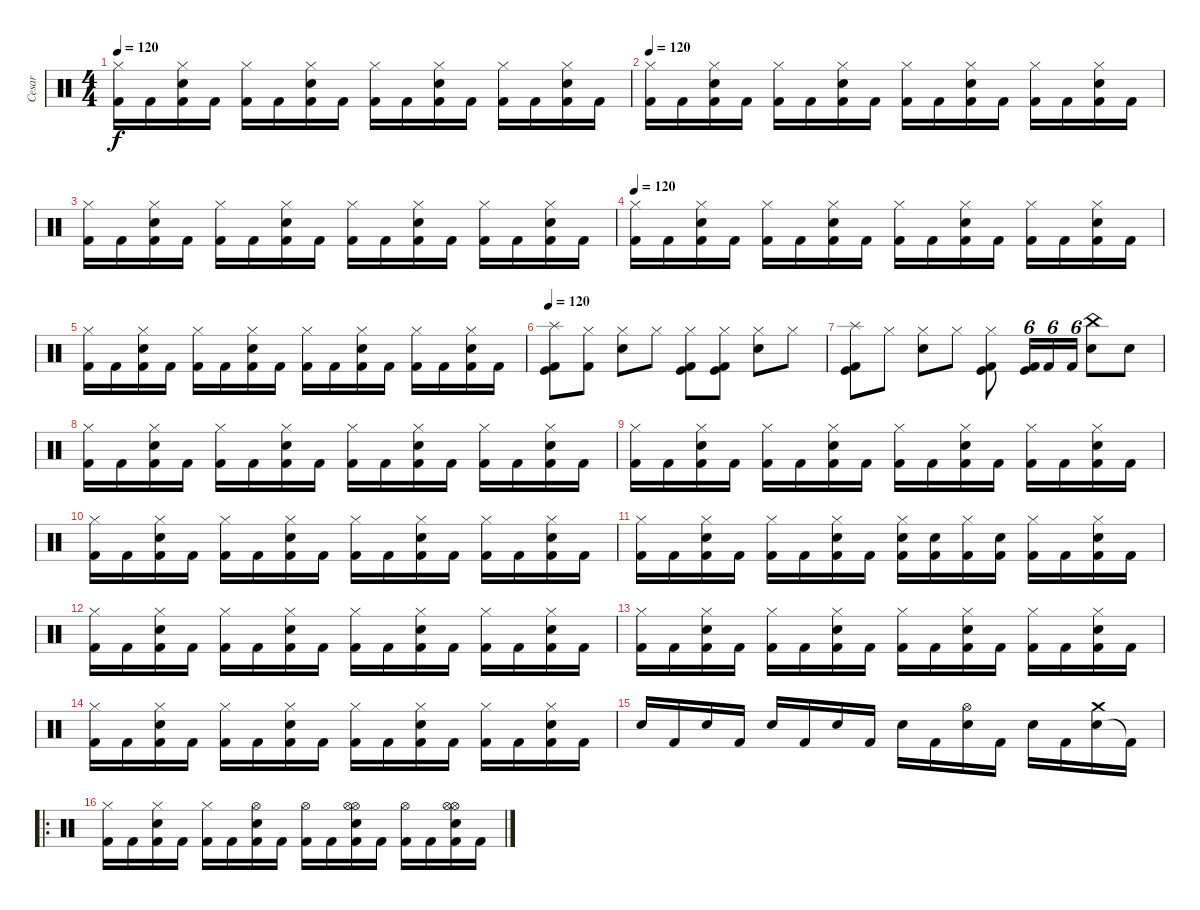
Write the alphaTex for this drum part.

\track ("Cesar" "Cesar") {instrument percussion}
\staff {score}
\articulation defaults
\ts (4 4)
\tempo 120
\clef neutral
\ks c
("Hi-Hat (closed)" "Kick (hit) 2").16{dy f} "Kick (hit) 2".16 ("Electric Snare (hit)" "Kick (hit) 2" "Hi-Hat (closed)").16 "Kick (hit) 2".16 ("Hi-Hat (closed)" "Kick (hit) 2").16 "Kick (hit) 2".16 ("Electric Snare (hit)" "Kick (hit) 2" "Hi-Hat (closed)").16 "Kick (hit) 2".16 ("Hi-Hat (closed)" "Kick (hit) 2").16 "Kick (hit) 2".16 ("Electric Snare (hit)" "Kick (hit) 2" "Hi-Hat (closed)").16 "Kick (hit) 2".16 ("Hi-Hat (closed)" "Kick (hit) 2").16 "Kick (hit) 2".16 ("Electric Snare (hit)" "Hi-Hat (closed)" "Kick (hit) 2").16 "Kick (hit) 2".16 |
\tempo 120
("Hi-Hat (closed)" "Kick (hit) 2").16 "Kick (hit) 2".16 ("Electric Snare (hit)" "Kick (hit) 2" "Hi-Hat (closed)").16 "Kick (hit) 2".16 ("Hi-Hat (closed)" "Kick (hit) 2").16 "Kick (hit) 2".16 ("Electric Snare (hit)" "Kick (hit) 2" "Hi-Hat (closed)").16 "Kick (hit) 2".16 ("Hi-Hat (closed)" "Kick (hit) 2").16 "Kick (hit) 2".16 ("Electric Snare (hit)" "Kick (hit) 2" "Hi-Hat (closed)").16 "Kick (hit) 2".16 ("Hi-Hat (closed)" "Kick (hit) 2").16 "Kick (hit) 2".16 ("Electric Snare (hit)" "Hi-Hat (closed)" "Kick (hit) 2").16 "Kick (hit) 2".16 |
("Hi-Hat (closed)" "Kick (hit) 2").16 "Kick (hit) 2".16 ("Electric Snare (hit)" "Kick (hit) 2" "Hi-Hat (closed)").16 "Kick (hit) 2".16 ("Hi-Hat (closed)" "Kick (hit) 2").16 "Kick (hit) 2".16 ("Electric Snare (hit)" "Kick (hit) 2" "Hi-Hat (closed)").16 "Kick (hit) 2".16 ("Hi-Hat (closed)" "Kick (hit) 2").16 "Kick (hit) 2".16 ("Electric Snare (hit)" "Kick (hit) 2" "Hi-Hat (closed)").16 "Kick (hit) 2".16 ("Hi-Hat (closed)" "Kick (hit) 2").16 "Kick (hit) 2".16 ("Electric Snare (hit)" "Hi-Hat (closed)" "Kick (hit) 2").16 "Kick (hit) 2".16 |
\tempo 120
("Hi-Hat (closed)" "Kick (hit) 2").16 "Kick (hit) 2".16 ("Electric Snare (hit)" "Kick (hit) 2" "Hi-Hat (closed)").16 "Kick (hit) 2".16 ("Hi-Hat (closed)" "Kick (hit) 2").16 "Kick (hit) 2".16 ("Electric Snare (hit)" "Kick (hit) 2" "Hi-Hat (closed)").16 "Kick (hit) 2".16 ("Hi-Hat (closed)" "Kick (hit) 2").16 "Kick (hit) 2".16 ("Electric Snare (hit)" "Kick (hit) 2" "Hi-Hat (closed)").16 "Kick (hit) 2".16 ("Hi-Hat (closed)" "Kick (hit) 2").16 "Kick (hit) 2".16 ("Electric Snare (hit)" "Hi-Hat (closed)" "Kick (hit) 2").16 "Kick (hit) 2".16 |
("Hi-Hat (closed)" "Kick (hit) 2").16 "Kick (hit) 2".16 ("Electric Snare (hit)" "Kick (hit) 2" "Hi-Hat (closed)").16 "Kick (hit) 2".16 ("Hi-Hat (closed)" "Kick (hit) 2").16 "Kick (hit) 2".16 ("Electric Snare (hit)" "Kick (hit) 2" "Hi-Hat (closed)").16 "Kick (hit) 2".16 ("Hi-Hat (closed)" "Kick (hit) 2").16 "Kick (hit) 2".16 ("Electric Snare (hit)" "Kick (hit) 2" "Hi-Hat (closed)").16 "Kick (hit) 2".16 ("Hi-Hat (closed)" "Kick (hit) 2").16 "Kick (hit) 2".16 ("Electric Snare (hit)" "Hi-Hat (closed)" "Kick (hit) 2").16 "Kick (hit) 2".16 |
\tempo 120
("Splash (hit)" "Kick (hit) 2" "Kick (hit)").8 ("Hi-Hat (closed)" "Kick (hit) 2").8 ("Hi-Hat (closed)" "Electric Snare (hit)").8 "Hi-Hat (closed)".8 ("Hi-Hat (closed)" "Kick (hit) 2" "Kick (hit)").8 ("Hi-Hat (closed)" "Kick (hit) 2" "Kick (hit)").8 ("Hi-Hat (closed)" "Electric Snare (hit)").8 "Hi-Hat (closed)".8 |
("Splash (hit)" "Kick (hit) 2" "Kick (hit)").8 "Hi-Hat (closed)".8 ("Hi-Hat (closed)" "Electric Snare (hit)").8 "Hi-Hat (closed)".8 ("Hi-Hat (closed)" "Kick (hit) 2" "Kick (hit)").8 ("Kick (hit) 2" "Kick (hit)").16{tu (6 4)} "Kick (hit) 2".16{tu (6 4)} "Kick (hit) 2".16{tu (6 4)} ("China (hit)" "Electric Snare (hit)").8 "Electric Snare (hit)".8 |
("Hi-Hat (closed)" "Kick (hit) 2").16 "Kick (hit) 2".16 ("Electric Snare (hit)" "Kick (hit) 2" "Hi-Hat (closed)").16 "Kick (hit) 2".16 ("Hi-Hat (closed)" "Kick (hit) 2").16 "Kick (hit) 2".16 ("Electric Snare (hit)" "Kick (hit) 2" "Hi-Hat (closed)").16 "Kick (hit) 2".16 ("Hi-Hat (closed)" "Kick (hit) 2").16 "Kick (hit) 2".16 ("Electric Snare (hit)" "Kick (hit) 2" "Hi-Hat (closed)").16 "Kick (hit) 2".16 ("Hi-Hat (closed)" "Kick (hit) 2").16 "Kick (hit) 2".16 ("Electric Snare (hit)" "Hi-Hat (closed)" "Kick (hit) 2").16 "Kick (hit) 2".16 |
("Hi-Hat (closed)" "Kick (hit) 2").16 "Kick (hit) 2".16 ("Electric Snare (hit)" "Kick (hit) 2" "Hi-Hat (closed)").16 "Kick (hit) 2".16 ("Hi-Hat (closed)" "Kick (hit) 2").16 "Kick (hit) 2".16 ("Electric Snare (hit)" "Kick (hit) 2" "Hi-Hat (closed)").16 "Kick (hit) 2".16 ("Hi-Hat (closed)" "Kick (hit) 2").16 "Kick (hit) 2".16 ("Electric Snare (hit)" "Kick (hit) 2" "Hi-Hat (closed)").16 "Kick (hit) 2".16 ("Hi-Hat (closed)" "Kick (hit) 2").16 "Kick (hit) 2".16 ("Electric Snare (hit)" "Hi-Hat (closed)" "Kick (hit) 2").16 "Kick (hit) 2".16 |
("Hi-Hat (closed)" "Kick (hit) 2").16 "Kick (hit) 2".16 ("Electric Snare (hit)" "Kick (hit) 2" "Hi-Hat (closed)").16 "Kick (hit) 2".16 ("Hi-Hat (closed)" "Kick (hit) 2").16 "Kick (hit) 2".16 ("Electric Snare (hit)" "Kick (hit) 2" "Hi-Hat (closed)").16 "Kick (hit) 2".16 ("Hi-Hat (closed)" "Kick (hit) 2").16 "Kick (hit) 2".16 ("Electric Snare (hit)" "Kick (hit) 2" "Hi-Hat (closed)").16 "Kick (hit) 2".16 ("Hi-Hat (closed)" "Kick (hit) 2").16 "Kick (hit) 2".16 ("Electric Snare (hit)" "Hi-Hat (closed)" "Kick (hit) 2").16 "Kick (hit) 2".16 |
("Hi-Hat (closed)" "Kick (hit) 2").16 "Kick (hit) 2".16 ("Electric Snare (hit)" "Kick (hit) 2" "Hi-Hat (closed)").16 "Kick (hit) 2".16 ("Hi-Hat (closed)" "Kick (hit) 2").16 "Kick (hit) 2".16 ("Electric Snare (hit)" "Kick (hit) 2" "Hi-Hat (closed)").16 "Kick (hit) 2".16 ("Hi-Hat (closed)" "Kick (hit) 2" "Electric Snare (hit)").16 ("Kick (hit) 2" "Electric Snare (hit)").16 ("Hi-Hat (closed)" "Kick (hit) 2").16 ("Kick (hit) 2" "Electric Snare (hit)").16 ("Hi-Hat (closed)" "Kick (hit) 2").16 "Kick (hit) 2".16 ("Hi-Hat (closed)" "Kick (hit) 2" "Electric Snare (hit)").16 "Kick (hit) 2".16 |
("Hi-Hat (closed)" "Kick (hit) 2").16 "Kick (hit) 2".16 ("Electric Snare (hit)" "Kick (hit) 2" "Hi-Hat (closed)").16 "Kick (hit) 2".16 ("Hi-Hat (closed)" "Kick (hit) 2").16 "Kick (hit) 2".16 ("Electric Snare (hit)" "Kick (hit) 2" "Hi-Hat (closed)").16 "Kick (hit) 2".16 ("Hi-Hat (closed)" "Kick (hit) 2").16 "Kick (hit) 2".16 ("Electric Snare (hit)" "Kick (hit) 2" "Hi-Hat (closed)").16 "Kick (hit) 2".16 ("Hi-Hat (closed)" "Kick (hit) 2").16 "Kick (hit) 2".16 ("Electric Snare (hit)" "Hi-Hat (closed)" "Kick (hit) 2").16 "Kick (hit) 2".16 |
("Hi-Hat (closed)" "Kick (hit) 2").16 "Kick (hit) 2".16 ("Electric Snare (hit)" "Kick (hit) 2" "Hi-Hat (closed)").16 "Kick (hit) 2".16 ("Hi-Hat (closed)" "Kick (hit) 2").16 "Kick (hit) 2".16 ("Electric Snare (hit)" "Kick (hit) 2" "Hi-Hat (closed)").16 "Kick (hit) 2".16 ("Hi-Hat (closed)" "Kick (hit) 2").16 "Kick (hit) 2".16 ("Electric Snare (hit)" "Kick (hit) 2" "Hi-Hat (closed)").16 "Kick (hit) 2".16 ("Hi-Hat (closed)" "Kick (hit) 2").16 "Kick (hit) 2".16 ("Electric Snare (hit)" "Hi-Hat (closed)" "Kick (hit) 2").16 "Kick (hit) 2".16 |
("Hi-Hat (closed)" "Kick (hit) 2").16 "Kick (hit) 2".16 ("Electric Snare (hit)" "Kick (hit) 2" "Hi-Hat (closed)").16 "Kick (hit) 2".16 ("Hi-Hat (closed)" "Kick (hit) 2").16 "Kick (hit) 2".16 ("Electric Snare (hit)" "Kick (hit) 2" "Hi-Hat (closed)").16 "Kick (hit) 2".16 ("Hi-Hat (closed)" "Kick (hit) 2").16 "Kick (hit) 2".16 ("Electric Snare (hit)" "Kick (hit) 2" "Hi-Hat (closed)").16 "Kick (hit) 2".16 ("Hi-Hat (closed)" "Kick (hit) 2").16 "Kick (hit) 2".16 ("Electric Snare (hit)" "Hi-Hat (closed)" "Kick (hit) 2").16 "Kick (hit) 2".16 |
"Electric Snare (hit)".16 "Kick (hit) 2".16 "Electric Snare (hit)".16 "Kick (hit) 2".16 "Electric Snare (hit)".16 "Kick (hit) 2".16 "Electric Snare (hit)".16 "Kick (hit) 2".16 "Electric Snare (hit)".16 "Kick (hit) 2".16 ("Electric Snare (hit)" "Hi-Hat (open)").16 "Kick (hit) 2".16 "Electric Snare (hit)".16 "Kick (hit) 2".16 ("Electric Snare (hit)" "Crash medium (hit)").16 "Kick (hit) 2"{t}.16 |
\ro
("Hi-Hat (closed)" "Kick (hit) 2").16 "Kick (hit) 2".16 ("Electric Snare (hit)" "Kick (hit) 2" "Hi-Hat (closed)").16 "Kick (hit) 2".16 ("Hi-Hat (closed)" "Kick (hit) 2").16 "Kick (hit) 2".16 ("Electric Snare (hit)" "Kick (hit) 2" "Hi-Hat (open)").16 "Kick (hit) 2".16 ("Hi-Hat (open)" "Kick (hit) 2").16 "Kick (hit) 2".16 ("Hi-Hat (open)" "Kick (hit) 2" "Hi-Hat (open)" "Electric Snare (hit)").16 "Kick (hit) 2".16 ("Hi-Hat (open)" "Kick (hit) 2").16 "Kick (hit) 2".16 ("Hi-Hat (open)" "Hi-Hat (open)" "Kick (hit) 2" "Electric Snare (hit)").16 "Kick (hit) 2".16
